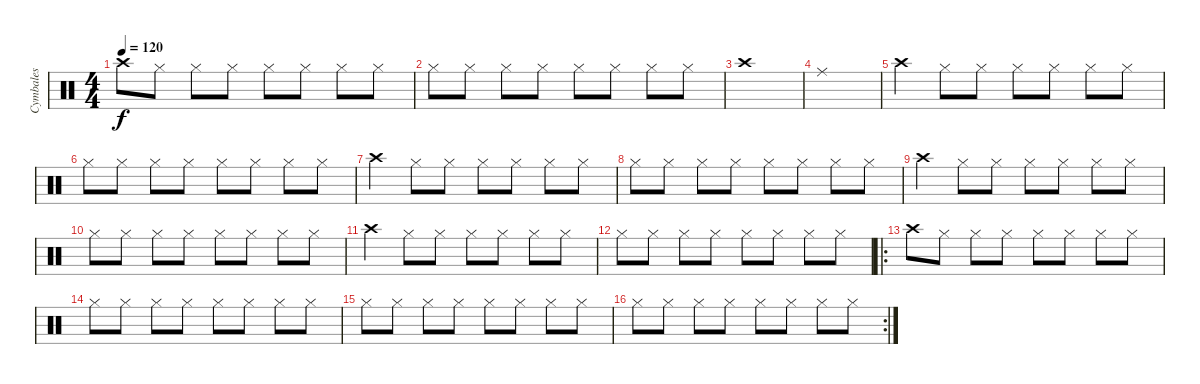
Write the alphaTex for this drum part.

\track ("Cymbales" "Cymbales") {instrument percussion}
\staff {score}
\articulation defaults
\ts (4 4)
\tempo 120
\clef neutral
\ks c "Crash high (hit)".8{dy f} "Hi-Hat (closed)".8 "Hi-Hat (closed)".8 "Hi-Hat (closed)".8 "Hi-Hat (closed)".8 "Hi-Hat (closed)".8 "Hi-Hat (closed)".8 "Hi-Hat (closed)".8
|
"Hi-Hat (closed)".8 "Hi-Hat (closed)".8 "Hi-Hat (closed)".8 "Hi-Hat (closed)".8 "Hi-Hat (closed)".8 "Hi-Hat (closed)".8 "Hi-Hat (closed)".8 "Hi-Hat (closed)".8 |
"Crash high (hit)".1 |
"Ride (middle)".1 |
"Crash high (hit)".4 "Hi-Hat (closed)".8 "Hi-Hat (closed)".8 "Hi-Hat (closed)".8 "Hi-Hat (closed)".8 "Hi-Hat (closed)".8 "Hi-Hat (closed)".8 |
"Hi-Hat (closed)".8 "Hi-Hat (closed)".8 "Hi-Hat (closed)".8 "Hi-Hat (closed)".8 "Hi-Hat (closed)".8 "Hi-Hat (closed)".8 "Hi-Hat (closed)".8 "Hi-Hat (closed)".8 |
"Crash high (hit)".4 "Hi-Hat (closed)".8 "Hi-Hat (closed)".8 "Hi-Hat (closed)".8 "Hi-Hat (closed)".8 "Hi-Hat (closed)".8 "Hi-Hat (closed)".8 |
"Hi-Hat (closed)".8 "Hi-Hat (closed)".8 "Hi-Hat (closed)".8 "Hi-Hat (closed)".8 "Hi-Hat (closed)".8 "Hi-Hat (closed)".8 "Hi-Hat (closed)".8 "Hi-Hat (closed)".8 |
"Crash high (hit)".4 "Hi-Hat (closed)".8 "Hi-Hat (closed)".8 "Hi-Hat (closed)".8 "Hi-Hat (closed)".8 "Hi-Hat (closed)".8 "Hi-Hat (closed)".8 |
"Hi-Hat (closed)".8 "Hi-Hat (closed)".8 "Hi-Hat (closed)".8 "Hi-Hat (closed)".8 "Hi-Hat (closed)".8 "Hi-Hat (closed)".8 "Hi-Hat (closed)".8 "Hi-Hat (closed)".8 |
"Crash high (hit)".4 "Hi-Hat (closed)".8 "Hi-Hat (closed)".8 "Hi-Hat (closed)".8 "Hi-Hat (closed)".8 "Hi-Hat (closed)".8 "Hi-Hat (closed)".8 |
"Hi-Hat (closed)".8 "Hi-Hat (closed)".8 "Hi-Hat (closed)".8 "Hi-Hat (closed)".8 "Hi-Hat (closed)".8 "Hi-Hat (closed)".8 "Hi-Hat (closed)".8 "Hi-Hat (closed)".8 |
\ro "Crash high (hit)".8 "Hi-Hat (closed)".8 "Hi-Hat (closed)".8 "Hi-Hat (closed)".8 "Hi-Hat (closed)".8 "Hi-Hat (closed)".8 "Hi-Hat (closed)".8 "Hi-Hat (closed)".8
|
"Hi-Hat (closed)".8 "Hi-Hat (closed)".8 "Hi-Hat (closed)".8 "Hi-Hat (closed)".8 "Hi-Hat (closed)".8 "Hi-Hat (closed)".8 "Hi-Hat (closed)".8 "Hi-Hat (closed)".8 |
"Hi-Hat (closed)".8 "Hi-Hat (closed)".8 "Hi-Hat (closed)".8 "Hi-Hat (closed)".8 "Hi-Hat (closed)".8 "Hi-Hat (closed)".8 "Hi-Hat (closed)".8 "Hi-Hat (closed)".8 |
\rc 2 "Hi-Hat (closed)".8 "Hi-Hat (closed)".8 "Hi-Hat (closed)".8 "Hi-Hat (closed)".8 "Hi-Hat (closed)".8 "Hi-Hat (closed)".8 "Hi-Hat (closed)".8 "Hi-Hat (closed)".8
